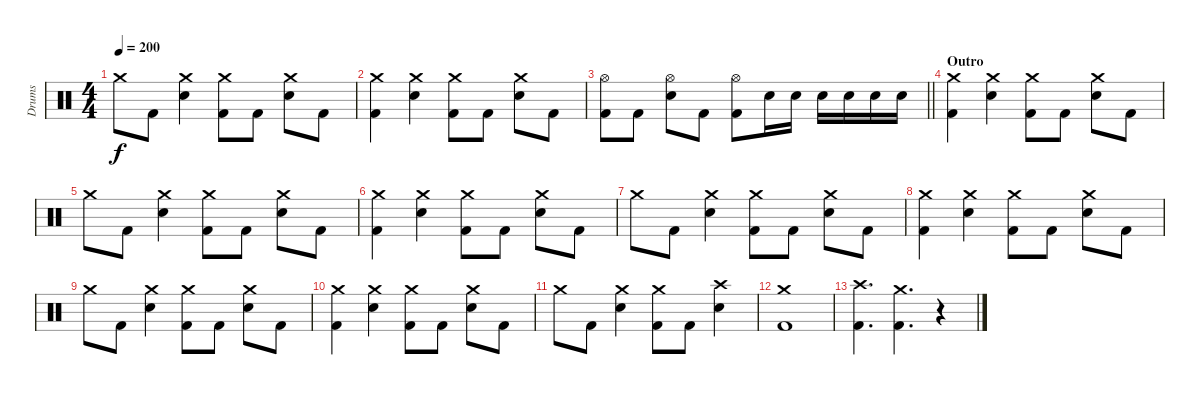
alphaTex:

\track ("Drums" "Drums") {instrument percussion}
\staff {score}
\articulation defaults
\ts (4 4)
\tempo 200
\clef neutral
\ks c "Crash medium (hit)".8{dy f} "Kick (hit) 2".8
("Crash medium (hit)" "Electric Snare (hit)").4 ("Crash medium (hit)" "Kick (hit) 2").8 "Kick (hit) 2".8 ("Crash medium (hit)" "Electric Snare (hit)").8 "Kick (hit) 2".8 |
("Crash medium (hit)" "Kick (hit) 2").4 ("Crash medium (hit)" "Electric Snare (hit)").4 ("Crash medium (hit)" "Kick (hit) 2").8 "Kick (hit) 2".8 ("Crash medium (hit)" "Electric Snare (hit)").8 "Kick (hit) 2".8 |
\barLineRight lightlight
("Hi-Hat (open)" "Kick (hit) 2").8 "Kick (hit) 2".8 ("Hi-Hat (open)" "Electric Snare (hit)").8 "Kick (hit) 2".8 ("Hi-Hat (open)" "Kick (hit) 2").8 "Electric Snare (hit)".16 "Electric Snare (hit)".16 "Electric Snare (hit)".16 "Electric Snare (hit)".16 "Electric Snare (hit)".16 "Electric Snare (hit)".16 |
\section ("" "Outro")
("Crash medium (hit)" "Kick (hit) 2").4 ("Crash medium (hit)" "Electric Snare (hit)").4 ("Crash medium (hit)" "Kick (hit) 2").8 "Kick (hit) 2".8 ("Crash medium (hit)" "Electric Snare (hit)").8 "Kick (hit) 2".8 |
"Crash medium (hit)".8 "Kick (hit) 2".8 ("Crash medium (hit)" "Electric Snare (hit)").4 ("Crash medium (hit)" "Kick (hit) 2").8 "Kick (hit) 2".8 ("Crash medium (hit)" "Electric Snare (hit)").8 "Kick (hit) 2".8 |
("Crash medium (hit)" "Kick (hit) 2").4 ("Crash medium (hit)" "Electric Snare (hit)").4 ("Crash medium (hit)" "Kick (hit) 2").8 "Kick (hit) 2".8 ("Crash medium (hit)" "Electric Snare (hit)").8 "Kick (hit) 2".8 |
"Crash medium (hit)".8 "Kick (hit) 2".8 ("Crash medium (hit)" "Electric Snare (hit)").4 ("Crash medium (hit)" "Kick (hit) 2").8 "Kick (hit) 2".8 ("Crash medium (hit)" "Electric Snare (hit)").8 "Kick (hit) 2".8 |
("Crash medium (hit)" "Kick (hit) 2").4 ("Crash medium (hit)" "Electric Snare (hit)").4 ("Crash medium (hit)" "Kick (hit) 2").8 "Kick (hit) 2".8 ("Crash medium (hit)" "Electric Snare (hit)").8 "Kick (hit) 2".8 |
"Crash medium (hit)".8 "Kick (hit) 2".8 ("Crash medium (hit)" "Electric Snare (hit)").4 ("Crash medium (hit)" "Kick (hit) 2").8 "Kick (hit) 2".8 ("Crash medium (hit)" "Electric Snare (hit)").8 "Kick (hit) 2".8 |
("Crash medium (hit)" "Kick (hit) 2").4 ("Crash medium (hit)" "Electric Snare (hit)").4 ("Crash medium (hit)" "Kick (hit) 2").8 "Kick (hit) 2".8 ("Crash medium (hit)" "Electric Snare (hit)").8 "Kick (hit) 2".8 |
"Crash medium (hit)".8 "Kick (hit) 2".8 ("Crash medium (hit)" "Electric Snare (hit)").4 ("Crash medium (hit)" "Kick (hit) 2").8 "Kick (hit) 2".8 ("Crash high (hit)" "Electric Snare (hit)").4 |
("Crash medium (hit)" "Kick (hit) 2").1 |
("Crash high (hit)" "Kick (hit) 2").4{d} ("Crash medium (hit)" "Kick (hit) 2").4{d} r.4
